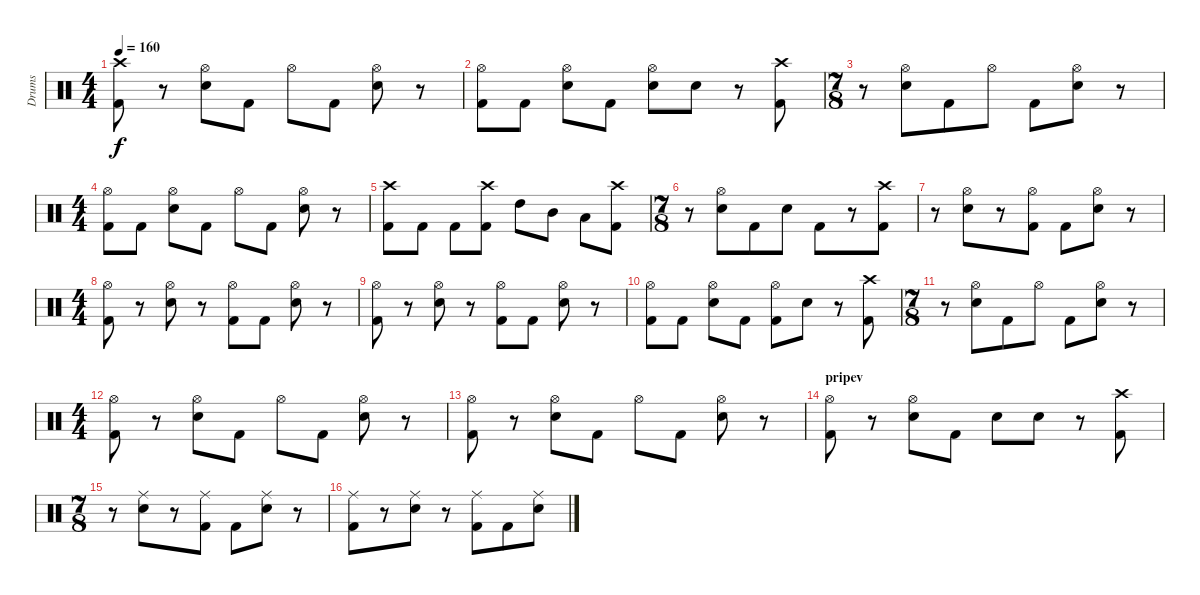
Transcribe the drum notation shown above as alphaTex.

\track ("Drums" "Drums") {instrument percussion}
\staff {score}
\articulation defaults
\ts (4 4)
\tempo 160
\clef neutral
\ks c
("Kick (hit) 2" "Crash high (hit)").8{dy f} r.8 ("Snare (hit) 2" "Hi-Hat (open)").8 "Kick (hit) 2".8 "Hi-Hat (open)".8 "Kick (hit) 2".8 ("Snare (hit) 2" "Hi-Hat (open)").8 r.8 |
("Kick (hit) 2" "Hi-Hat (open)").8 "Kick (hit) 2".8 ("Snare (hit) 2" "Hi-Hat (open)").8 "Kick (hit) 2".8 ("Snare (hit) 2" "Hi-Hat (open)").8 "Snare (hit) 2".8 r.8 ("Kick (hit) 2" "Crash high (hit)").8 |
\ts (7 8)
r.8 ("Snare (hit) 2" "Hi-Hat (open)").8 "Kick (hit) 2".8 "Hi-Hat (open)".8 "Kick (hit) 2".8 ("Snare (hit) 2" "Hi-Hat (open)").8 r.8 |
\ts (4 4)
("Kick (hit) 2" "Hi-Hat (open)").8 "Kick (hit) 2".8 ("Snare (hit) 2" "Hi-Hat (open)").8 "Kick (hit) 2".8 "Hi-Hat (open)".8 "Kick (hit) 2".8 ("Snare (hit) 2" "Hi-Hat (open)").8 r.8 |
("Kick (hit) 2" "Crash high (hit)").8 "Kick (hit) 2".8 "Kick (hit) 2".8 ("Kick (hit) 2" "Crash high (hit)").8 "High Tom (hit)".8 "Mid Tom (hit)".8 "Low Tom (hit)".8 ("Kick (hit) 2" "Crash high (hit)").8 |
\ts (7 8)
r.8 ("Snare (hit) 2" "Hi-Hat (open)").8 "Kick (hit) 2".8 "Snare (hit) 2".8 "Kick (hit) 2".8 r.8 ("Kick (hit) 2" "Crash high (hit)").8 |
r.8 ("Snare (hit) 2" "Hi-Hat (open)").8 r.8 ("Kick (hit) 2" "Hi-Hat (open)").8 "Kick (hit) 2".8 ("Snare (hit) 2" "Hi-Hat (open)").8 r.8 |
\ts (4 4)
("Kick (hit) 2" "Hi-Hat (open)").8 r.8 ("Snare (hit) 2" "Hi-Hat (open)").8 r.8 ("Kick (hit) 2" "Hi-Hat (open)").8 "Kick (hit) 2".8 ("Snare (hit) 2" "Hi-Hat (open)").8 r.8 |
("Kick (hit) 2" "Hi-Hat (open)").8 r.8 ("Snare (hit) 2" "Hi-Hat (open)").8 r.8 ("Kick (hit) 2" "Hi-Hat (open)").8 "Kick (hit) 2".8 ("Snare (hit) 2" "Hi-Hat (open)").8 r.8 |
("Kick (hit) 2" "Hi-Hat (open)").8 "Kick (hit) 2".8 ("Snare (hit) 2" "Hi-Hat (open)").8 "Kick (hit) 2".8 ("Kick (hit) 2" "Hi-Hat (open)").8 "Snare (hit) 2".8 r.8 ("Kick (hit) 2" "Crash high (hit)").8 |
\ts (7 8)
r.8 ("Snare (hit) 2" "Hi-Hat (open)").8 "Kick (hit) 2".8 "Hi-Hat (open)".8 "Kick (hit) 2".8 ("Snare (hit) 2" "Hi-Hat (open)").8 r.8 |
\ts (4 4)
("Kick (hit) 2" "Hi-Hat (open)").8 r.8 ("Snare (hit) 2" "Hi-Hat (open)").8 "Kick (hit) 2".8 "Hi-Hat (open)".8 "Kick (hit) 2".8 ("Snare (hit) 2" "Hi-Hat (open)").8 r.8 |
("Kick (hit) 2" "Hi-Hat (open)").8 r.8 ("Snare (hit) 2" "Hi-Hat (open)").8 "Kick (hit) 2".8 "Hi-Hat (open)".8 "Kick (hit) 2".8 ("Snare (hit) 2" "Hi-Hat (open)").8 r.8 |
\section ("" "pripev")
("Kick (hit) 2" "Hi-Hat (open)").8 r.8 ("Snare (hit) 2" "Hi-Hat (open)").8 "Kick (hit) 2".8 "Snare (hit) 2".8 "Snare (hit) 2".8 r.8 ("Kick (hit) 2" "Crash high (hit)").8 |
\ts (7 8)
r.8 ("Snare (hit) 2" "Ride (middle)").8 r.8 ("Kick (hit) 2" "Ride (middle)").8 "Kick (hit) 2".8 ("Snare (hit) 2" "Ride (middle)").8 r.8 |
("Kick (hit) 2" "Ride (middle)").8 r.8 ("Snare (hit) 2" "Ride (middle)").8 r.8 ("Kick (hit) 2" "Ride (middle)").8 "Kick (hit) 2".8 ("Snare (hit) 2" "Ride (middle)").8
